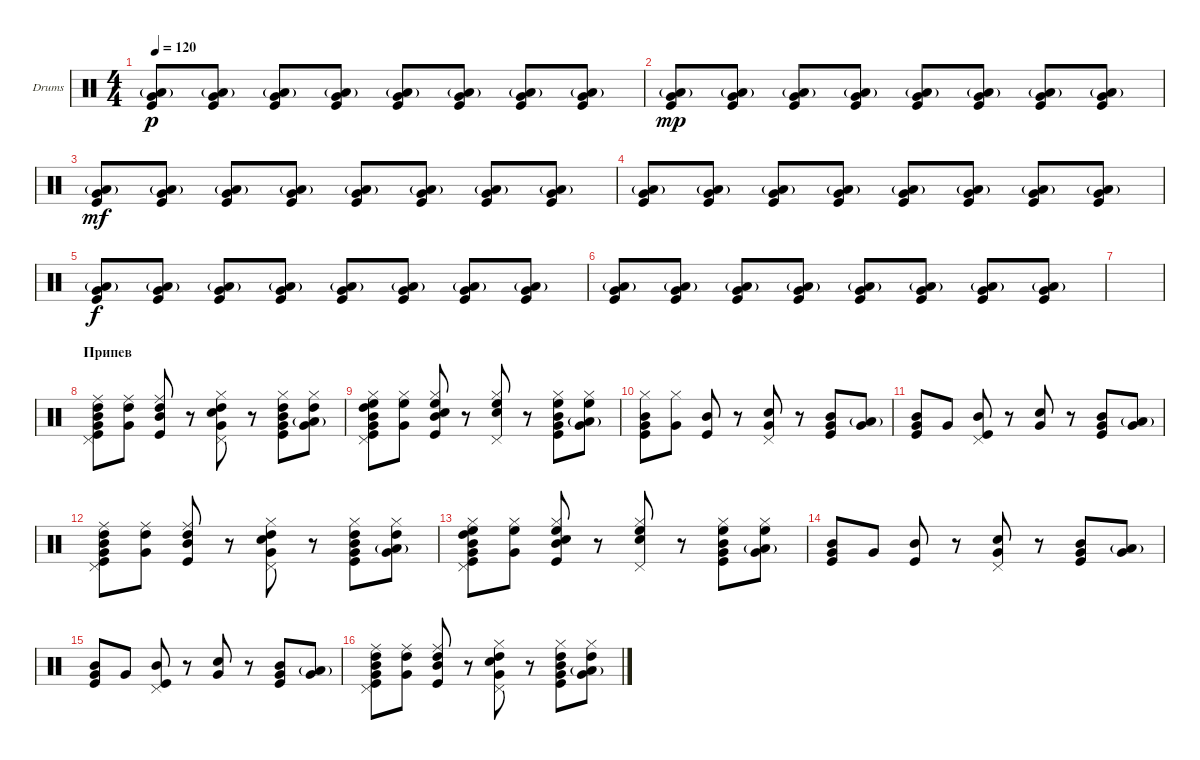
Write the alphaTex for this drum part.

\defaultSystemsLayout 4
\bracketExtendMode groupsimilarinstruments
\firstSystemTrackNameOrientation horizontal
\otherSystemsTrackNameOrientation horizontal
\track ("Drumkit" "Drums") {instrument percussion}
\staff {score}
\articulation defaults
\ts (4 4)
\tempo 120
\clef neutral
\ks c
("Very Low Tom (hit)" "Low Tom (hit)"{g} "Kick (hit)").8{dy p} ("Very Low Tom (hit)" "Low Tom (hit)"{g} "Kick (hit)").8 ("Very Low Tom (hit)" "Low Tom (hit)"{g} "Kick (hit)").8 ("Very Low Tom (hit)" "Low Tom (hit)"{g} "Kick (hit)").8 ("Very Low Tom (hit)" "Low Tom (hit)"{g} "Kick (hit)").8 ("Very Low Tom (hit)" "Low Tom (hit)"{g} "Kick (hit)").8 ("Very Low Tom (hit)" "Low Tom (hit)"{g} "Kick (hit)").8 ("Very Low Tom (hit)" "Low Tom (hit)"{g} "Kick (hit)").8 |
("Very Low Tom (hit)" "Low Tom (hit)"{g} "Kick (hit)").8{dy mp} ("Very Low Tom (hit)" "Low Tom (hit)"{g} "Kick (hit)").8 ("Very Low Tom (hit)" "Low Tom (hit)"{g} "Kick (hit)").8 ("Very Low Tom (hit)" "Low Tom (hit)"{g} "Kick (hit)").8 ("Very Low Tom (hit)" "Low Tom (hit)"{g} "Kick (hit)").8 ("Very Low Tom (hit)" "Low Tom (hit)"{g} "Kick (hit)").8 ("Very Low Tom (hit)" "Low Tom (hit)"{g} "Kick (hit)").8 ("Very Low Tom (hit)" "Low Tom (hit)"{g} "Kick (hit)").8 |
("Very Low Tom (hit)" "Low Tom (hit)"{g} "Kick (hit)").8{dy mf} ("Very Low Tom (hit)" "Low Tom (hit)"{g} "Kick (hit)").8 ("Very Low Tom (hit)" "Low Tom (hit)"{g} "Kick (hit)").8 ("Very Low Tom (hit)" "Low Tom (hit)"{g} "Kick (hit)").8 ("Very Low Tom (hit)" "Low Tom (hit)"{g} "Kick (hit)").8 ("Very Low Tom (hit)" "Low Tom (hit)"{g} "Kick (hit)").8 ("Very Low Tom (hit)" "Low Tom (hit)"{g} "Kick (hit)").8 ("Very Low Tom (hit)" "Low Tom (hit)"{g} "Kick (hit)").8 |
("Very Low Tom (hit)" "Low Tom (hit)"{g} "Kick (hit)").8 ("Very Low Tom (hit)" "Low Tom (hit)"{g} "Kick (hit)").8 ("Very Low Tom (hit)" "Low Tom (hit)"{g} "Kick (hit)").8 ("Very Low Tom (hit)" "Low Tom (hit)"{g} "Kick (hit)").8 ("Very Low Tom (hit)" "Low Tom (hit)"{g} "Kick (hit)").8 ("Very Low Tom (hit)" "Low Tom (hit)"{g} "Kick (hit)").8 ("Very Low Tom (hit)" "Low Tom (hit)"{g} "Kick (hit)").8 ("Very Low Tom (hit)" "Low Tom (hit)"{g} "Kick (hit)").8 |
("Very Low Tom (hit)" "Low Tom (hit)"{g} "Kick (hit)").8{dy f} ("Very Low Tom (hit)" "Low Tom (hit)"{g} "Kick (hit)").8 ("Very Low Tom (hit)" "Low Tom (hit)"{g} "Kick (hit)").8 ("Very Low Tom (hit)" "Low Tom (hit)"{g} "Kick (hit)").8 ("Very Low Tom (hit)" "Low Tom (hit)"{g} "Kick (hit)").8 ("Very Low Tom (hit)" "Low Tom (hit)"{g} "Kick (hit)").8 ("Very Low Tom (hit)" "Low Tom (hit)"{g} "Kick (hit)").8 ("Very Low Tom (hit)" "Low Tom (hit)"{g} "Kick (hit)").8 |
("Very Low Tom (hit)" "Low Tom (hit)"{g} "Kick (hit)").8 ("Very Low Tom (hit)" "Low Tom (hit)"{g} "Kick (hit)").8 ("Very Low Tom (hit)" "Low Tom (hit)"{g} "Kick (hit)").8 ("Very Low Tom (hit)" "Low Tom (hit)"{g} "Kick (hit)").8 ("Very Low Tom (hit)" "Low Tom (hit)"{g} "Kick (hit)").8 ("Very Low Tom (hit)" "Low Tom (hit)"{g} "Kick (hit)").8 ("Very Low Tom (hit)" "Low Tom (hit)"{g} "Kick (hit)").8 ("Very Low Tom (hit)" "Low Tom (hit)"{g} "Kick (hit)").8 |
|
\section ("" "Припев")
("Mid Tom (hit)" "Very Low Tom (hit)" "Kick (hit)" "Pedal Hi-Hat (hit)" "Ride (middle)" "High Tom (hit)").8 ("Very Low Tom (hit)" "Ride (middle)" "High Tom (hit)").8 ("Mid Tom (hit)" "Kick (hit)" "Ride (middle)" "High Tom (hit)").8 r.8 ("Very Low Tom (hit)" "Snare (hit) 2" "Pedal Hi-Hat (hit)" "Hi-Hat (closed)" "High Tom (hit)").8 r.8 ("Mid Tom (hit)" "Very Low Tom (hit)" "Kick (hit)" "Hi-Hat (closed)" "High Tom (hit)").8 ("Low Tom (hit)"{g} "Very Low Tom (hit)" "Hi-Hat (closed)" "High Tom (hit)").8 |
("Mid Tom (hit)" "Very Low Tom (hit)" "Kick (hit)" "Hi-Hat (closed)" "Pedal Hi-Hat (hit)" "High Tom (hit)" "High Floor Tom (hit)").8 ("Very Low Tom (hit)" "Hi-Hat (closed)" "High Floor Tom (hit)").8 ("Mid Tom (hit)" "Kick (hit)" "Hi-Hat (closed)" "Snare (hit) 2" "High Floor Tom (hit)").8 r.8 ("Snare (hit) 2" "Pedal Hi-Hat (hit)" "Hi-Hat (closed)" "High Floor Tom (hit)").8 r.8 ("Mid Tom (hit)" "Very Low Tom (hit)" "Kick (hit)" "Hi-Hat (closed)" "High Floor Tom (hit)").8 ("Low Tom (hit)"{g} "Very Low Tom (hit)" "Hi-Hat (closed)" "High Floor Tom (hit)").8 |
("Mid Tom (hit)" "Very Low Tom (hit)" "Kick (hit)" "Hi-Hat (closed)").8 ("Very Low Tom (hit)" "Hi-Hat (closed)").8 ("Mid Tom (hit)" "Kick (hit)").8 r.8 ("Very Low Tom (hit)" "Snare (hit) 2" "Pedal Hi-Hat (hit)").8 r.8 ("Mid Tom (hit)" "Very Low Tom (hit)" "Kick (hit)").8 ("Low Tom (hit)"{g} "Very Low Tom (hit)").8 |
("Mid Tom (hit)" "Very Low Tom (hit)" "Kick (hit)").8 "Very Low Tom (hit)".8 ("Mid Tom (hit)" "Kick (hit)" "Pedal Hi-Hat (hit)").8 r.8 ("Very Low Tom (hit)" "Snare (hit) 2").8 r.8 ("Mid Tom (hit)" "Very Low Tom (hit)" "Kick (hit)").8 ("Low Tom (hit)"{g} "Very Low Tom (hit)").8 |
("Mid Tom (hit)" "Very Low Tom (hit)" "Kick (hit)" "Pedal Hi-Hat (hit)" "Ride (middle)" "High Tom (hit)").8 ("Very Low Tom (hit)" "Ride (middle)" "High Tom (hit)").8 ("Mid Tom (hit)" "Kick (hit)" "Ride (middle)" "High Tom (hit)").8 r.8 ("Very Low Tom (hit)" "Snare (hit) 2" "Pedal Hi-Hat (hit)" "Hi-Hat (closed)" "High Tom (hit)").8 r.8 ("Mid Tom (hit)" "Very Low Tom (hit)" "Kick (hit)" "Hi-Hat (closed)" "High Tom (hit)").8 ("Low Tom (hit)"{g} "Very Low Tom (hit)" "Hi-Hat (closed)" "High Tom (hit)").8 |
("Mid Tom (hit)" "Very Low Tom (hit)" "Kick (hit)" "Hi-Hat (closed)" "Pedal Hi-Hat (hit)" "High Tom (hit)" "High Floor Tom (hit)").8 ("Very Low Tom (hit)" "Hi-Hat (closed)" "High Floor Tom (hit)").8 ("Mid Tom (hit)" "Kick (hit)" "Hi-Hat (closed)" "Snare (hit) 2" "High Floor Tom (hit)").8 r.8 ("Snare (hit) 2" "Pedal Hi-Hat (hit)" "Hi-Hat (closed)" "High Floor Tom (hit)").8 r.8 ("Mid Tom (hit)" "Very Low Tom (hit)" "Kick (hit)" "Hi-Hat (closed)" "High Floor Tom (hit)").8 ("Low Tom (hit)"{g} "Very Low Tom (hit)" "Hi-Hat (closed)" "High Floor Tom (hit)").8 |
("Mid Tom (hit)" "Very Low Tom (hit)" "Kick (hit)").8 "Very Low Tom (hit)".8 ("Mid Tom (hit)" "Kick (hit)").8 r.8 ("Very Low Tom (hit)" "Snare (hit) 2" "Pedal Hi-Hat (hit)").8 r.8 ("Mid Tom (hit)" "Very Low Tom (hit)" "Kick (hit)").8 ("Low Tom (hit)"{g} "Very Low Tom (hit)").8 |
("Mid Tom (hit)" "Very Low Tom (hit)" "Kick (hit)").8 "Very Low Tom (hit)".8 ("Mid Tom (hit)" "Kick (hit)" "Pedal Hi-Hat (hit)").8 r.8 ("Very Low Tom (hit)" "Snare (hit) 2").8 r.8 ("Mid Tom (hit)" "Very Low Tom (hit)" "Kick (hit)").8 ("Low Tom (hit)"{g} "Very Low Tom (hit)").8 |
("Mid Tom (hit)" "Very Low Tom (hit)" "Kick (hit)" "Pedal Hi-Hat (hit)" "Ride (middle)" "High Tom (hit)").8 ("Very Low Tom (hit)" "Ride (middle)" "High Tom (hit)").8 ("Mid Tom (hit)" "Kick (hit)" "Ride (middle)" "High Tom (hit)").8 r.8 ("Very Low Tom (hit)" "Snare (hit) 2" "Pedal Hi-Hat (hit)" "Hi-Hat (closed)" "High Tom (hit)").8 r.8 ("Mid Tom (hit)" "Very Low Tom (hit)" "Kick (hit)" "Hi-Hat (closed)" "High Tom (hit)").8 ("Low Tom (hit)"{g} "Very Low Tom (hit)" "Hi-Hat (closed)" "High Tom (hit)").8
